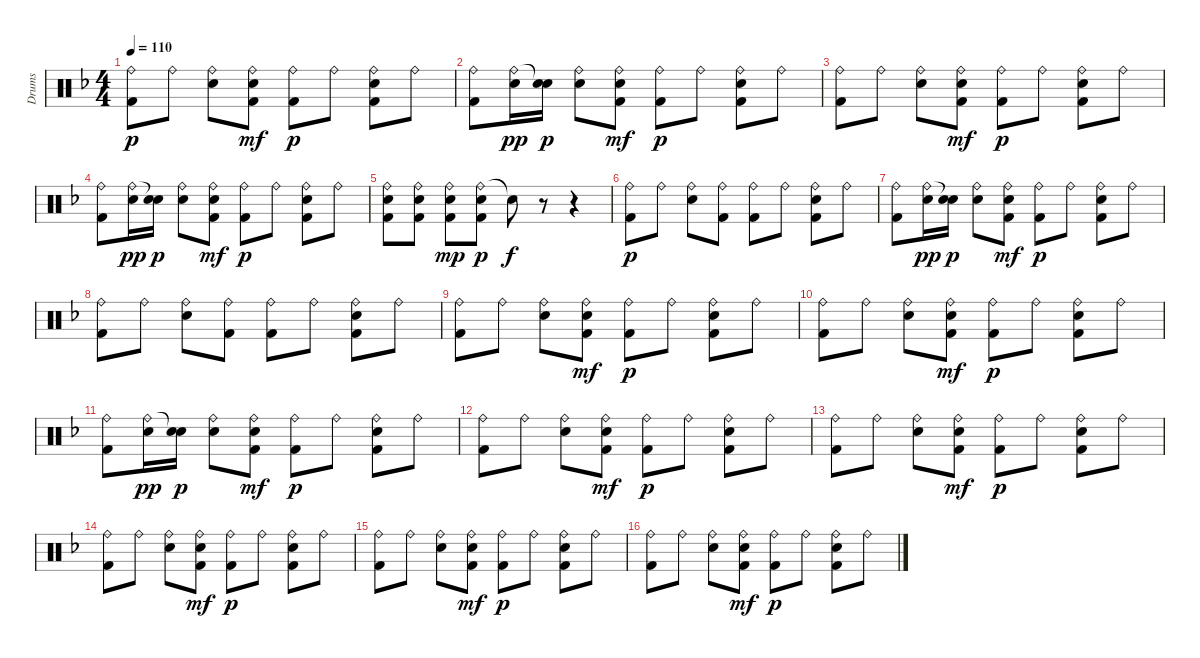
\track ("Drums" "Drums") {instrument percussion}
\staff {score}
\articulation defaults
\ts (4 4)
\tempo 110
\clef neutral
\ks f
("Ride (bell)" "Kick (hit) 2").8{dy p} "Ride (bell)".8 ("Ride (bell)" "Electric Snare (hit)").8 ("Ride (bell)" "Electric Snare (hit)" "Kick (hit) 2").8{dy mf} ("Ride (bell)" "Kick (hit) 2").8{dy p} "Ride (bell)".8 ("Ride (bell)" "Electric Snare (hit)" "Kick (hit) 2").8 "Ride (bell)".8 |
("Ride (bell)" "Kick (hit) 2").8 ("Ride (bell)" "Electric Snare (hit)").16{dy pp} ("Snare (hit)"{t} "Electric Snare (hit)").16{dy p} ("Ride (bell)" "Electric Snare (hit)").8 ("Ride (bell)" "Electric Snare (hit)" "Kick (hit) 2").8{dy mf} ("Ride (bell)" "Kick (hit) 2").8{dy p} "Ride (bell)".8 ("Ride (bell)" "Electric Snare (hit)" "Kick (hit) 2").8 "Ride (bell)".8 |
("Ride (bell)" "Kick (hit) 2").8 "Ride (bell)".8 ("Ride (bell)" "Electric Snare (hit)").8 ("Ride (bell)" "Electric Snare (hit)" "Kick (hit) 2").8{dy mf} ("Ride (bell)" "Kick (hit) 2").8{dy p} "Ride (bell)".8 ("Ride (bell)" "Electric Snare (hit)" "Kick (hit) 2").8 "Ride (bell)".8 |
("Ride (bell)" "Kick (hit) 2").8 ("Ride (bell)" "Electric Snare (hit)").16{dy pp} ("Snare (hit)"{t} "Electric Snare (hit)").16{dy p} ("Ride (bell)" "Electric Snare (hit)").8 ("Ride (bell)" "Electric Snare (hit)" "Kick (hit) 2").8{dy mf} ("Ride (bell)" "Kick (hit) 2").8{dy p} "Ride (bell)".8 ("Ride (bell)" "Electric Snare (hit)" "Kick (hit) 2").8 "Ride (bell)".8 |
("Ride (bell)" "Electric Snare (hit)" "Kick (hit) 2").8 ("Ride (bell)" "Electric Snare (hit)" "Kick (hit) 2").8 ("Ride (bell)" "Electric Snare (hit)" "Kick (hit) 2").8{dy mp} ("Ride (bell)" "Electric Snare (hit)" "Kick (hit) 2").8{dy p} "Snare (hit)"{t}.8{dy f} r.8 r.4 |
("Ride (bell)" "Kick (hit) 2").8{dy p} "Ride (bell)".8 ("Ride (bell)" "Electric Snare (hit)").8 ("Ride (bell)" "Kick (hit) 2").8 ("Ride (bell)" "Kick (hit) 2").8 "Ride (bell)".8 ("Ride (bell)" "Electric Snare (hit)" "Kick (hit) 2").8 "Ride (bell)".8 |
("Ride (bell)" "Kick (hit) 2").8 ("Ride (bell)" "Electric Snare (hit)").16{dy pp} ("Snare (hit)"{t} "Electric Snare (hit)").16{dy p} ("Ride (bell)" "Electric Snare (hit)").8 ("Ride (bell)" "Electric Snare (hit)" "Kick (hit) 2").8{dy mf} ("Ride (bell)" "Kick (hit) 2").8{dy p} "Ride (bell)".8 ("Ride (bell)" "Electric Snare (hit)" "Kick (hit) 2").8 "Ride (bell)".8 |
("Ride (bell)" "Kick (hit) 2").8 "Ride (bell)".8 ("Ride (bell)" "Electric Snare (hit)").8 ("Ride (bell)" "Kick (hit) 2").8 ("Ride (bell)" "Kick (hit) 2").8 "Ride (bell)".8 ("Ride (bell)" "Electric Snare (hit)" "Kick (hit) 2").8 "Ride (bell)".8 |
("Ride (bell)" "Kick (hit) 2").8 "Ride (bell)".8 ("Ride (bell)" "Electric Snare (hit)").8 ("Ride (bell)" "Electric Snare (hit)" "Kick (hit) 2").8{dy mf} ("Ride (bell)" "Kick (hit) 2").8{dy p} "Ride (bell)".8 ("Ride (bell)" "Electric Snare (hit)" "Kick (hit) 2").8 "Ride (bell)".8 |
("Ride (bell)" "Kick (hit) 2").8 "Ride (bell)".8 ("Ride (bell)" "Electric Snare (hit)").8 ("Ride (bell)" "Electric Snare (hit)" "Kick (hit) 2").8{dy mf} ("Ride (bell)" "Kick (hit) 2").8{dy p} "Ride (bell)".8 ("Ride (bell)" "Electric Snare (hit)" "Kick (hit) 2").8 "Ride (bell)".8 |
("Ride (bell)" "Kick (hit) 2").8 ("Ride (bell)" "Electric Snare (hit)").16{dy pp} ("Snare (hit)"{t} "Electric Snare (hit)").16{dy p} ("Ride (bell)" "Electric Snare (hit)").8 ("Ride (bell)" "Electric Snare (hit)" "Kick (hit) 2").8{dy mf} ("Ride (bell)" "Kick (hit) 2").8{dy p} "Ride (bell)".8 ("Ride (bell)" "Electric Snare (hit)" "Kick (hit) 2").8 "Ride (bell)".8 |
("Ride (bell)" "Kick (hit) 2").8 "Ride (bell)".8 ("Ride (bell)" "Electric Snare (hit)").8 ("Ride (bell)" "Electric Snare (hit)" "Kick (hit) 2").8{dy mf} ("Ride (bell)" "Kick (hit) 2").8{dy p} "Ride (bell)".8 ("Ride (bell)" "Electric Snare (hit)" "Kick (hit) 2").8 "Ride (bell)".8 |
("Ride (bell)" "Kick (hit) 2").8 "Ride (bell)".8 ("Ride (bell)" "Electric Snare (hit)").8 ("Ride (bell)" "Electric Snare (hit)" "Kick (hit) 2").8{dy mf} ("Ride (bell)" "Kick (hit) 2").8{dy p} "Ride (bell)".8 ("Ride (bell)" "Electric Snare (hit)" "Kick (hit) 2").8 "Ride (bell)".8 |
("Ride (bell)" "Kick (hit) 2").8 "Ride (bell)".8 ("Ride (bell)" "Electric Snare (hit)").8 ("Ride (bell)" "Electric Snare (hit)" "Kick (hit) 2").8{dy mf} ("Ride (bell)" "Kick (hit) 2").8{dy p} "Ride (bell)".8 ("Ride (bell)" "Electric Snare (hit)" "Kick (hit) 2").8 "Ride (bell)".8 |
("Ride (bell)" "Kick (hit) 2").8 "Ride (bell)".8 ("Ride (bell)" "Electric Snare (hit)").8 ("Ride (bell)" "Electric Snare (hit)" "Kick (hit) 2").8{dy mf} ("Ride (bell)" "Kick (hit) 2").8{dy p} "Ride (bell)".8 ("Ride (bell)" "Electric Snare (hit)" "Kick (hit) 2").8 "Ride (bell)".8 |
("Ride (bell)" "Kick (hit) 2").8 "Ride (bell)".8 ("Ride (bell)" "Electric Snare (hit)").8 ("Ride (bell)" "Electric Snare (hit)" "Kick (hit) 2").8{dy mf} ("Ride (bell)" "Kick (hit) 2").8{dy p} "Ride (bell)".8 ("Ride (bell)" "Electric Snare (hit)" "Kick (hit) 2").8 "Ride (bell)".8
